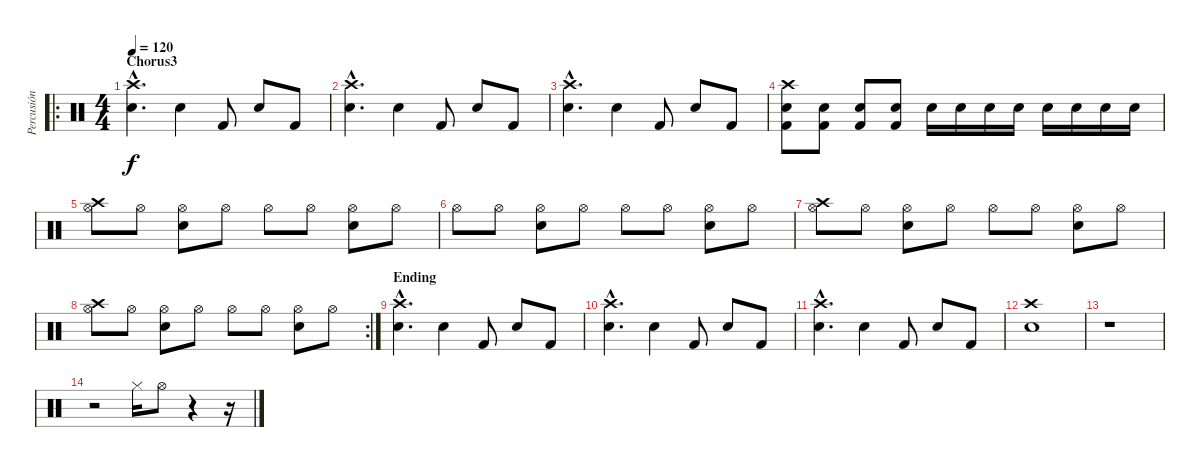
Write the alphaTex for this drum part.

\track ("Percusión" "Percusión") {instrument percussion}
\staff {score}
\articulation defaults
\ro
\ts (4 4)
\section ("" "Chorus3")
\tempo 120
\clef neutral
\ks c
("Crash high (hit)"{hac} "Snare (hit) 2"{hac}).4{d dy f} "Snare (hit) 2".4 "Kick (hit) 2".8 "Snare (hit) 2".8 "Kick (hit) 2".8 |
("Crash high (hit)"{hac} "Snare (hit) 2"{hac}).4{d} "Snare (hit) 2".4 "Kick (hit) 2".8 "Snare (hit) 2".8 "Kick (hit) 2".8 |
("Crash high (hit)"{hac} "Snare (hit) 2"{hac}).4{d} "Snare (hit) 2".4 "Kick (hit) 2".8 "Snare (hit) 2".8 "Kick (hit) 2".8 |
("Crash high (hit)" "Snare (hit) 2" "Kick (hit) 2").8 ("Snare (hit) 2" "Kick (hit) 2").8 ("Snare (hit) 2" "Kick (hit) 2").8 ("Snare (hit) 2" "Kick (hit) 2").8 "Snare (hit) 2".16 "Snare (hit) 2"{x}.16 "Snare (hit) 2".16 "Snare (hit) 2".16 "Snare (hit) 2".16 "Snare (hit) 2".16 "Snare (hit) 2".16 "Snare (hit) 2".16 |
("Hi-Hat (open)" "Crash high (hit)").8 "Hi-Hat (open)".8 ("Hi-Hat (open)" "Snare (hit) 2").8 "Hi-Hat (open)".8 "Hi-Hat (open)".8 "Hi-Hat (open)".8 ("Hi-Hat (open)" "Snare (hit) 2").8 "Hi-Hat (open)".8 |
"Hi-Hat (open)".8 "Hi-Hat (open)".8 ("Hi-Hat (open)" "Snare (hit) 2").8 "Hi-Hat (open)".8 "Hi-Hat (open)".8 "Hi-Hat (open)".8 ("Hi-Hat (open)" "Snare (hit) 2").8 "Hi-Hat (open)".8 |
("Hi-Hat (open)" "Crash high (hit)").8 "Hi-Hat (open)".8 ("Hi-Hat (open)" "Snare (hit) 2").8 "Hi-Hat (open)".8 "Hi-Hat (open)".8 "Hi-Hat (open)".8 ("Hi-Hat (open)" "Snare (hit) 2").8 "Hi-Hat (open)".8 |
\rc 2
("Hi-Hat (open)" "Crash high (hit)").8 "Hi-Hat (open)".8 ("Hi-Hat (open)" "Snare (hit) 2").8 "Hi-Hat (open)".8 "Hi-Hat (open)".8 "Hi-Hat (open)".8 ("Hi-Hat (open)" "Snare (hit) 2").8 "Hi-Hat (open)".8 |
\section ("" "Ending")
("Crash high (hit)"{hac} "Snare (hit) 2"{hac}).4{d} "Snare (hit) 2".4 "Kick (hit) 2".8 "Snare (hit) 2".8 "Kick (hit) 2".8 |
("Crash high (hit)"{hac} "Snare (hit) 2"{hac}).4{d} "Snare (hit) 2".4 "Kick (hit) 2".8 "Snare (hit) 2".8 "Kick (hit) 2".8 |
("Crash high (hit)"{hac} "Snare (hit) 2"{hac}).4{d} "Snare (hit) 2".4 "Kick (hit) 2".8 "Snare (hit) 2".8 "Kick (hit) 2".8 |
("Crash high (hit)" "Snare (hit) 2").1 |
r.1 |
r.2 "Hi-Hat (closed)".16 "Hi-Hat (open)".8 r.4 r.16
